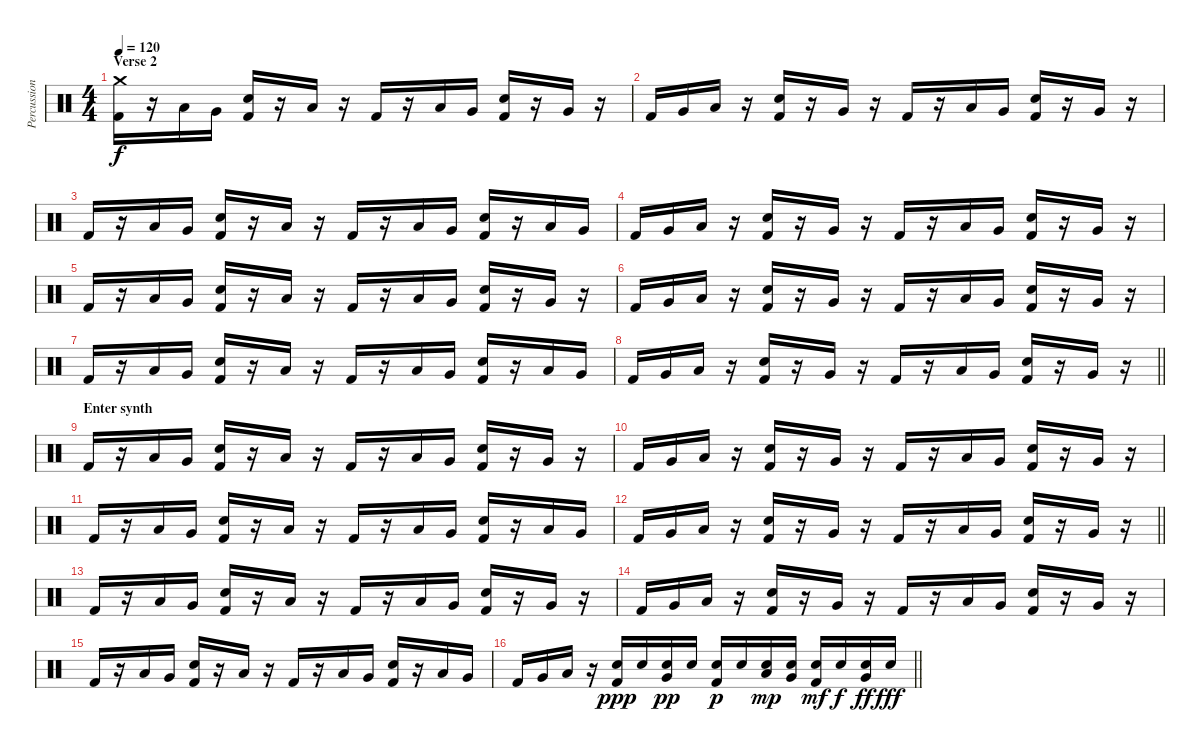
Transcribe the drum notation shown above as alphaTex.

\track ("Percussion" "Percussion") {instrument percussion}
\staff {score}
\articulation defaults
\ts (4 4)
\section ("" "Verse 2")
\tempo 120
\clef neutral
\ks c
("Crash medium (hit)" "Kick (hit) 2").16{dy f} r.16 "Low Tom (hit)".16 "Very Low Tom (hit)".16 ("Electric Snare (hit)" "Kick (hit) 2").16 r.16 "Low Tom (hit)".16 r.16 "Kick (hit) 2".16 r.16 "Low Tom (hit)".16 "Very Low Tom (hit)".16 ("Electric Snare (hit)" "Kick (hit) 2").16 r.16 "Very Low Tom (hit)".16 r.16 |
"Kick (hit) 2".16 "Very Low Tom (hit)".16 "Low Tom (hit)".16 r.16 ("Electric Snare (hit)" "Kick (hit) 2").16 r.16 "Very Low Tom (hit)".16 r.16 "Kick (hit) 2".16 r.16 "Low Tom (hit)".16 "Very Low Tom (hit)".16 ("Electric Snare (hit)" "Kick (hit) 2").16 r.16 "Very Low Tom (hit)".16 r.16 |
"Kick (hit) 2".16 r.16 "Low Tom (hit)".16 "Very Low Tom (hit)".16 ("Electric Snare (hit)" "Kick (hit) 2").16 r.16 "Low Tom (hit)".16 r.16 "Kick (hit) 2".16 r.16 "Low Tom (hit)".16 "Very Low Tom (hit)".16 ("Electric Snare (hit)" "Kick (hit) 2").16 r.16 "Low Tom (hit)".16 "Very Low Tom (hit)".16 |
"Kick (hit) 2".16 "Very Low Tom (hit)".16 "Low Tom (hit)".16 r.16 ("Electric Snare (hit)" "Kick (hit) 2").16 r.16 "Very Low Tom (hit)".16 r.16 "Kick (hit) 2".16 r.16 "Low Tom (hit)".16 "Very Low Tom (hit)".16 ("Electric Snare (hit)" "Kick (hit) 2").16 r.16 "Very Low Tom (hit)".16 r.16 |
"Kick (hit) 2".16 r.16 "Low Tom (hit)".16 "Very Low Tom (hit)".16 ("Electric Snare (hit)" "Kick (hit) 2").16 r.16 "Low Tom (hit)".16 r.16 "Kick (hit) 2".16 r.16 "Low Tom (hit)".16 "Very Low Tom (hit)".16 ("Electric Snare (hit)" "Kick (hit) 2").16 r.16 "Very Low Tom (hit)".16 r.16 |
"Kick (hit) 2".16 "Very Low Tom (hit)".16 "Low Tom (hit)".16 r.16 ("Electric Snare (hit)" "Kick (hit) 2").16 r.16 "Very Low Tom (hit)".16 r.16 "Kick (hit) 2".16 r.16 "Low Tom (hit)".16 "Very Low Tom (hit)".16 ("Electric Snare (hit)" "Kick (hit) 2").16 r.16 "Very Low Tom (hit)".16 r.16 |
"Kick (hit) 2".16 r.16 "Low Tom (hit)".16 "Very Low Tom (hit)".16 ("Electric Snare (hit)" "Kick (hit) 2").16 r.16 "Low Tom (hit)".16 r.16 "Kick (hit) 2".16 r.16 "Low Tom (hit)".16 "Very Low Tom (hit)".16 ("Electric Snare (hit)" "Kick (hit) 2").16 r.16 "Low Tom (hit)".16 "Very Low Tom (hit)".16 |
\barLineRight lightlight "Kick (hit) 2".16 "Very Low Tom (hit)".16 "Low Tom (hit)".16
r.16 ("Electric Snare (hit)" "Kick (hit) 2").16 r.16 "Very Low Tom (hit)".16 r.16 "Kick (hit) 2".16 r.16 "Low Tom (hit)".16 "Very Low Tom (hit)".16 ("Electric Snare (hit)" "Kick (hit) 2").16 r.16 "Very Low Tom (hit)".16 r.16 |
\section ("" "Enter synth")
"Kick (hit) 2".16 r.16 "Low Tom (hit)".16 "Very Low Tom (hit)".16 ("Electric Snare (hit)" "Kick (hit) 2").16 r.16 "Low Tom (hit)".16 r.16 "Kick (hit) 2".16 r.16 "Low Tom (hit)".16 "Very Low Tom (hit)".16 ("Electric Snare (hit)" "Kick (hit) 2").16 r.16 "Very Low Tom (hit)".16 r.16 |
"Kick (hit) 2".16 "Very Low Tom (hit)".16 "Low Tom (hit)".16 r.16 ("Electric Snare (hit)" "Kick (hit) 2").16 r.16 "Very Low Tom (hit)".16 r.16 "Kick (hit) 2".16 r.16 "Low Tom (hit)".16 "Very Low Tom (hit)".16 ("Electric Snare (hit)" "Kick (hit) 2").16 r.16 "Very Low Tom (hit)".16 r.16 |
"Kick (hit) 2".16 r.16 "Low Tom (hit)".16 "Very Low Tom (hit)".16 ("Electric Snare (hit)" "Kick (hit) 2").16 r.16 "Low Tom (hit)".16 r.16 "Kick (hit) 2".16 r.16 "Low Tom (hit)".16 "Very Low Tom (hit)".16 ("Electric Snare (hit)" "Kick (hit) 2").16 r.16 "Low Tom (hit)".16 "Very Low Tom (hit)".16 |
\barLineRight lightlight "Kick (hit) 2".16 "Very Low Tom (hit)".16 "Low Tom (hit)".16
r.16 ("Electric Snare (hit)" "Kick (hit) 2").16 r.16 "Very Low Tom (hit)".16 r.16 "Kick (hit) 2".16 r.16 "Low Tom (hit)".16 "Very Low Tom (hit)".16 ("Electric Snare (hit)" "Kick (hit) 2").16 r.16 "Very Low Tom (hit)".16 r.16 |
"Kick (hit) 2".16 r.16 "Low Tom (hit)".16 "Very Low Tom (hit)".16 ("Electric Snare (hit)" "Kick (hit) 2").16 r.16 "Low Tom (hit)".16 r.16 "Kick (hit) 2".16 r.16 "Low Tom (hit)".16 "Very Low Tom (hit)".16 ("Electric Snare (hit)" "Kick (hit) 2").16 r.16 "Very Low Tom (hit)".16 r.16 |
"Kick (hit) 2".16 "Very Low Tom (hit)".16 "Low Tom (hit)".16 r.16 ("Electric Snare (hit)" "Kick (hit) 2").16 r.16 "Very Low Tom (hit)".16 r.16 "Kick (hit) 2".16 r.16 "Low Tom (hit)".16 "Very Low Tom (hit)".16 ("Electric Snare (hit)" "Kick (hit) 2").16 r.16 "Very Low Tom (hit)".16 r.16 |
"Kick (hit) 2".16 r.16 "Low Tom (hit)".16 "Very Low Tom (hit)".16 ("Electric Snare (hit)" "Kick (hit) 2").16 r.16 "Low Tom (hit)".16 r.16 "Kick (hit) 2".16 r.16 "Low Tom (hit)".16 "Very Low Tom (hit)".16 ("Electric Snare (hit)" "Kick (hit) 2").16 r.16 "Low Tom (hit)".16 "Very Low Tom (hit)".16 |
\barLineRight lightlight "Kick (hit) 2".16 "Very Low Tom (hit)".16 "Low Tom (hit)".16
r.16 ("Electric Snare (hit)" "Kick (hit) 2").16{dy ppp} "Electric Snare (hit)".16 ("Electric Snare (hit)" "Very Low Tom (hit)").16{dy pp} "Electric Snare (hit)".16 ("Electric Snare (hit)" "Kick (hit) 2").16{dy p} "Electric Snare (hit)".16 ("Electric Snare (hit)" "Low Tom (hit)").16{dy mp} ("Electric Snare (hit)" "Very Low Tom (hit)").16 ("Electric Snare (hit)" "Kick (hit) 2").16{dy mf} "Electric Snare (hit)".16{dy f} ("Electric Snare (hit)" "Very Low Tom (hit)").16{dy ff} "Electric Snare (hit)".16{dy fff}
